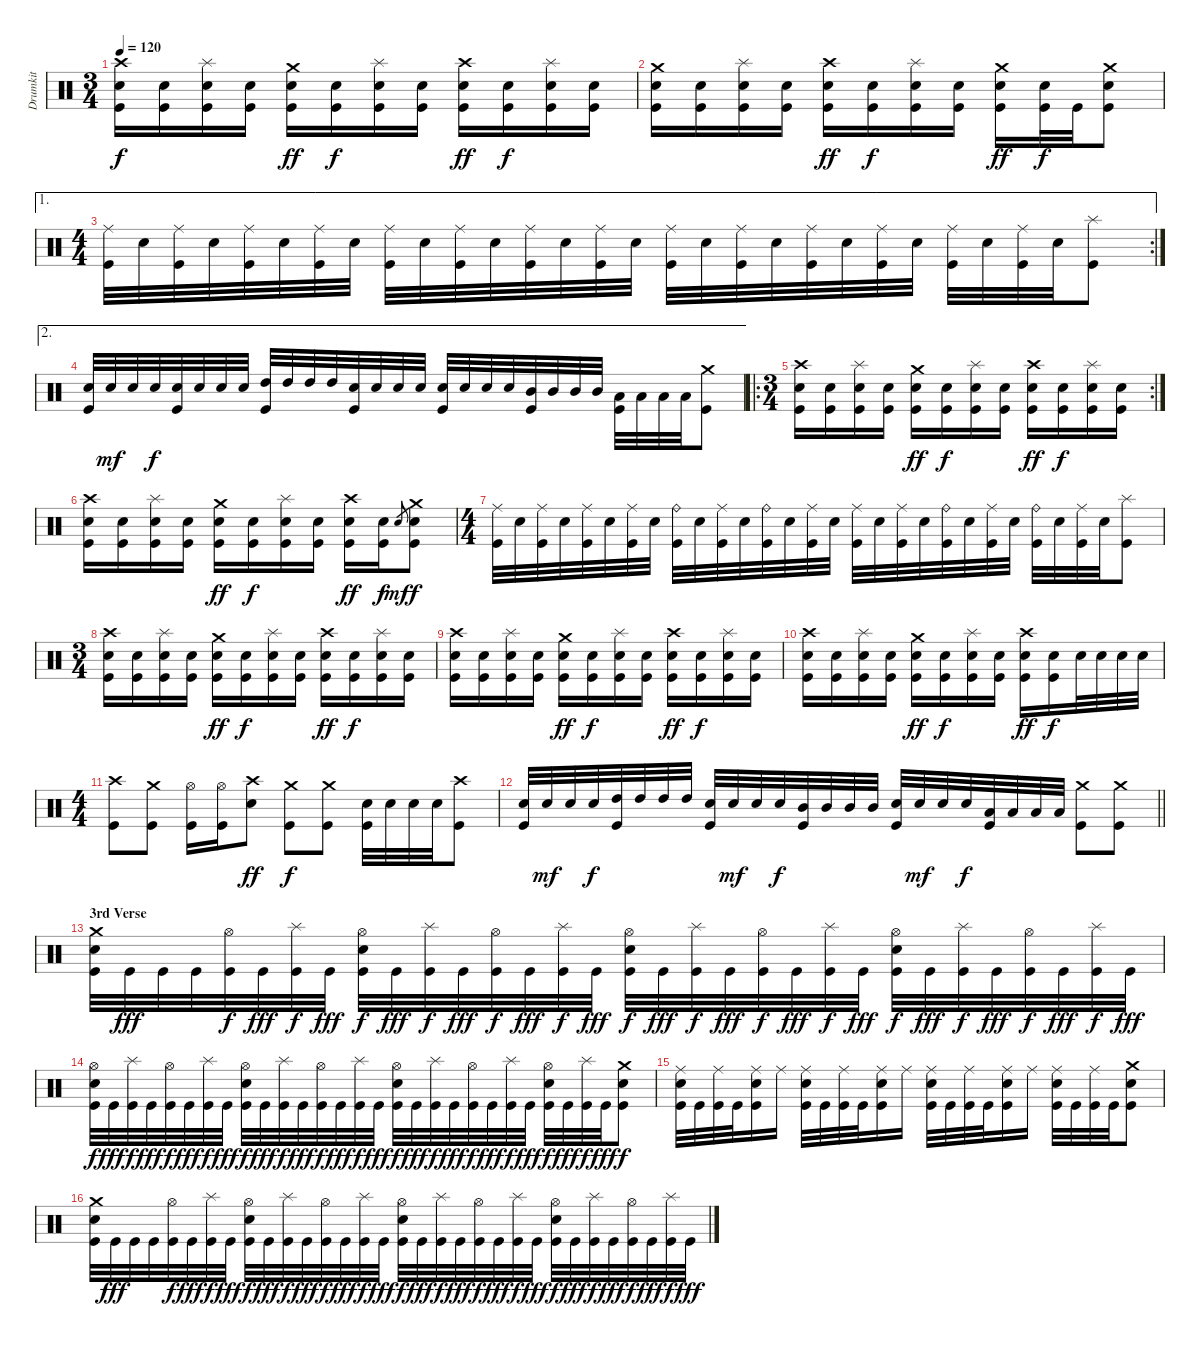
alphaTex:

\track ("Drumkit" "Drumkit") {instrument percussion}
\staff {score}
\articulation defaults
\ts (3 4)
\tempo 120
\clef neutral
\ks c
("Crash high (hit)" "Snare (hit) 2" "Kick (hit)").16{dy f} ("Snare (hit) 2" "Kick (hit)").16 ("Splash (hit)" "Snare (hit) 2" "Kick (hit)").16 ("Snare (hit) 2" "Kick (hit)").16 ("Crash medium (hit)" "Snare (hit) 2" "Kick (hit)").16{dy ff} ("Snare (hit) 2" "Kick (hit)").16{dy f} ("Splash (hit)" "Snare (hit) 2" "Kick (hit)").16 ("Snare (hit) 2" "Kick (hit)").16 ("Crash high (hit)" "Snare (hit) 2" "Kick (hit)").16{dy ff} ("Snare (hit) 2" "Kick (hit)").16{dy f} ("Splash (hit)" "Snare (hit) 2" "Kick (hit)").16 ("Snare (hit) 2" "Kick (hit)").16 |
("Crash medium (hit)" "Snare (hit) 2" "Kick (hit)").16 ("Snare (hit) 2" "Kick (hit)").16 ("Splash (hit)" "Snare (hit) 2" "Kick (hit)").16 ("Snare (hit) 2" "Kick (hit)").16 ("Crash high (hit)" "Snare (hit) 2" "Kick (hit)").16{dy ff} ("Snare (hit) 2" "Kick (hit)").16{dy f} ("Splash (hit)" "Snare (hit) 2" "Kick (hit)").16 ("Snare (hit) 2" "Kick (hit)").16 ("Crash medium (hit)" "Snare (hit) 2" "Kick (hit)").16{dy ff} ("Snare (hit) 2" "Kick (hit)").32{dy f} "Kick (hit)".32 ("Crash medium (hit)" "Snare (hit) 2" "Kick (hit)").8 |
\ae 1
\rc 2
\ts (4 4)
("Ride (middle)" "Kick (hit)").32 "Snare (hit) 2".32 ("Ride (middle)" "Kick (hit)").32 "Snare (hit) 2".32 ("Ride (middle)" "Kick (hit)").32 "Snare (hit) 2".32 ("Ride (middle)" "Kick (hit)").32 "Snare (hit) 2".32 ("Ride (middle)" "Kick (hit)").32 "Snare (hit) 2".32 ("Ride (middle)" "Kick (hit)").32 "Snare (hit) 2".32 ("Ride (middle)" "Kick (hit)").32 "Snare (hit) 2".32 ("Ride (middle)" "Kick (hit)").32 "Snare (hit) 2".32 ("Ride (middle)" "Kick (hit)").32 "Snare (hit) 2".32 ("Ride (middle)" "Kick (hit)").32 "Snare (hit) 2".32 ("Ride (middle)" "Kick (hit)").32 "Snare (hit) 2".32 ("Ride (middle)" "Kick (hit)").32 "Snare (hit) 2".32 ("Ride (middle)" "Kick (hit)").32 "Snare (hit) 2".32 ("Ride (middle)" "Kick (hit)").32 "Snare (hit) 2".32 ("Splash (hit)" "Kick (hit)").8 |
\ae 2
("Snare (hit) 2" "Kick (hit)").32 "Snare (hit) 2".32{dy mf} "Snare (hit) 2".32 "Snare (hit) 2".32{dy f} ("Snare (hit) 2" "Kick (hit)").32 "Snare (hit) 2".32 "Snare (hit) 2".32 "Snare (hit) 2".32 ("High Tom (hit)" "Kick (hit)").32 "High Tom (hit)".32 "High Tom (hit)".32 "High Tom (hit)".32 ("Snare (hit) 2" "Kick (hit)").32 "Snare (hit) 2".32 "Snare (hit) 2".32 "Snare (hit) 2".32 ("Snare (hit) 2" "Kick (hit)").32 "Snare (hit) 2".32 "Snare (hit) 2".32 "Snare (hit) 2".32 ("Mid Tom (hit)" "Kick (hit)").32 "Mid Tom (hit)".32 "Mid Tom (hit)".32 "Mid Tom (hit)".32 ("Low Tom (hit)" "Kick (hit)").32 "Low Tom (hit)".32 "Low Tom (hit)".32 "Low Tom (hit)".32 ("Crash medium (hit)" "Kick (hit)").8 |
\ro
\rc 2
\ts (3 4)
("Crash high (hit)" "Snare (hit) 2" "Kick (hit)").16 ("Snare (hit) 2" "Kick (hit)").16 ("Splash (hit)" "Snare (hit) 2" "Kick (hit)").16 ("Snare (hit) 2" "Kick (hit)").16 ("Crash medium (hit)" "Snare (hit) 2" "Kick (hit)").16{dy ff} ("Snare (hit) 2" "Kick (hit)").16{dy f} ("Splash (hit)" "Snare (hit) 2" "Kick (hit)").16 ("Snare (hit) 2" "Kick (hit)").16 ("Crash high (hit)" "Snare (hit) 2" "Kick (hit)").16{dy ff} ("Snare (hit) 2" "Kick (hit)").16{dy f} ("Splash (hit)" "Snare (hit) 2" "Kick (hit)").16 ("Snare (hit) 2" "Kick (hit)").16 |
("Crash high (hit)" "Snare (hit) 2" "Kick (hit)").16 ("Snare (hit) 2" "Kick (hit)").16 ("Splash (hit)" "Snare (hit) 2" "Kick (hit)").16 ("Snare (hit) 2" "Kick (hit)").16 ("Crash medium (hit)" "Snare (hit) 2" "Kick (hit)").16{dy ff} ("Snare (hit) 2" "Kick (hit)").16{dy f} ("Splash (hit)" "Snare (hit) 2" "Kick (hit)").16 ("Snare (hit) 2" "Kick (hit)").16 ("Crash high (hit)" "Snare (hit) 2" "Kick (hit)").16{dy ff} ("Snare (hit) 2" "Kick (hit)").16{dy f} "Snare (hit)".8{gr dy mf} ("Crash medium (hit)" "Snare (hit) 2" "Kick (hit)").8{dy f} |
\ts (4 4)
("Ride (middle)" "Kick (hit)").32 "Snare (hit) 2".32 ("Ride (middle)" "Kick (hit)").32 "Snare (hit) 2".32 ("Ride (middle)" "Kick (hit)").32 "Snare (hit) 2".32 ("Ride (middle)" "Kick (hit)").32 "Snare (hit) 2".32 ("Ride (bell)" "Kick (hit)").32 "Snare (hit) 2".32 ("Ride (middle)" "Kick (hit)").32 "Snare (hit) 2".32 ("Ride (bell)" "Kick (hit)").32 "Snare (hit) 2".32 ("Ride (middle)" "Kick (hit)").32 "Snare (hit) 2".32 ("Ride (middle)" "Kick (hit)").32 "Snare (hit) 2".32 ("Ride (middle)" "Kick (hit)").32 "Snare (hit) 2".32 ("Ride (bell)" "Kick (hit)").32 "Snare (hit) 2".32 ("Ride (middle)" "Kick (hit)").32 "Snare (hit) 2".32 ("Ride (bell)" "Kick (hit)").32 "Snare (hit) 2".32 ("Ride (middle)" "Kick (hit)").32 "Snare (hit) 2".32 ("Splash (hit)" "Kick (hit)").8 |
\ts (3 4)
("Crash high (hit)" "Snare (hit) 2" "Kick (hit)").16 ("Snare (hit) 2" "Kick (hit)").16 ("Splash (hit)" "Snare (hit) 2" "Kick (hit)").16 ("Snare (hit) 2" "Kick (hit)").16 ("Crash medium (hit)" "Snare (hit) 2" "Kick (hit)").16{dy ff} ("Snare (hit) 2" "Kick (hit)").16{dy f} ("Splash (hit)" "Snare (hit) 2" "Kick (hit)").16 ("Snare (hit) 2" "Kick (hit)").16 ("Crash high (hit)" "Snare (hit) 2" "Kick (hit)").16{dy ff} ("Snare (hit) 2" "Kick (hit)").16{dy f} ("Splash (hit)" "Snare (hit) 2" "Kick (hit)").16 ("Snare (hit) 2" "Kick (hit)").16 |
("Crash high (hit)" "Snare (hit) 2" "Kick (hit)").16 ("Snare (hit) 2" "Kick (hit)").16 ("Splash (hit)" "Snare (hit) 2" "Kick (hit)").16 ("Snare (hit) 2" "Kick (hit)").16 ("Crash medium (hit)" "Snare (hit) 2" "Kick (hit)").16{dy ff} ("Snare (hit) 2" "Kick (hit)").16{dy f} ("Splash (hit)" "Snare (hit) 2" "Kick (hit)").16 ("Snare (hit) 2" "Kick (hit)").16 ("Crash high (hit)" "Snare (hit) 2" "Kick (hit)").16{dy ff} ("Snare (hit) 2" "Kick (hit)").16{dy f} ("Splash (hit)" "Snare (hit) 2" "Kick (hit)").16 ("Snare (hit) 2" "Kick (hit)").16 |
("Crash high (hit)" "Snare (hit) 2" "Kick (hit)").16 ("Snare (hit) 2" "Kick (hit)").16 ("Splash (hit)" "Snare (hit) 2" "Kick (hit)").16 ("Snare (hit) 2" "Kick (hit)").16 ("Crash medium (hit)" "Snare (hit) 2" "Kick (hit)").16{dy ff} ("Snare (hit) 2" "Kick (hit)").16{dy f} ("Splash (hit)" "Snare (hit) 2" "Kick (hit)").16 ("Snare (hit) 2" "Kick (hit)").16 ("Crash high (hit)" "Snare (hit) 2" "Kick (hit)").16{dy ff} ("Snare (hit) 2" "Kick (hit)").16{dy f} "Snare (hit) 2".32 "Snare (hit) 2".32 "Snare (hit) 2".32 "Snare (hit) 2".32 |
\ts (4 4)
("Crash high (hit)" "Kick (hit)").8 ("Crash medium (hit)" "Kick (hit)").8 ("Hi-Hat (open)" "Kick (hit)").16 ("Hi-Hat (open)" "Kick (hit)").16 ("Crash high (hit)" "Snare (hit) 2").8{dy ff} ("Crash medium (hit)" "Kick (hit)").8{dy f} ("Crash medium (hit)" "Kick (hit)").8 ("Snare (hit) 2" "Kick (hit)").32 "Snare (hit) 2".32 "Snare (hit) 2".32 "Snare (hit) 2".32 ("Crash high (hit)" "Kick (hit)").8 |
\barLineRight lightlight
("Snare (hit) 2" "Kick (hit)").32 "Snare (hit) 2".32{dy mf} "Snare (hit) 2".32 "Snare (hit) 2".32{dy f} ("High Tom (hit)" "Kick (hit)").32 "High Tom (hit)".32 "High Tom (hit)".32 "High Tom (hit)".32 ("Snare (hit) 2" "Kick (hit)").32 "Snare (hit) 2".32{dy mf} "Snare (hit) 2".32 "Snare (hit) 2".32{dy f} ("Mid Tom (hit)" "Kick (hit)").32 "Mid Tom (hit)".32 "Mid Tom (hit)".32 "Mid Tom (hit)".32 ("Snare (hit) 2" "Kick (hit)").32 "Snare (hit) 2".32{dy mf} "Snare (hit) 2".32 "Snare (hit) 2".32{dy f} ("Low Tom (hit)" "Kick (hit)").32 "Low Tom (hit)".32 "Low Tom (hit)".32 "Low Tom (hit)".32 ("Crash medium (hit)" "Kick (hit)").8 ("Crash medium (hit)" "Kick (hit)").8 |
\section ("" "3rd Verse")
("Crash medium (hit)" "Snare (hit) 2" "Kick (hit)").32 "Kick (hit)".32{dy fff} "Kick (hit)".32 "Kick (hit)".32 ("Hi-Hat (open)" "Kick (hit)").32{dy f} "Kick (hit)".32{dy fff} ("Splash (hit)" "Kick (hit)").32{dy f} "Kick (hit)".32{dy fff} ("Hi-Hat (open)" "Snare (hit) 2" "Kick (hit)").32{dy f} "Kick (hit)".32{dy fff} ("Splash (hit)" "Kick (hit)").32{dy f} "Kick (hit)".32{dy fff} ("Hi-Hat (open)" "Kick (hit)").32{dy f} "Kick (hit)".32{dy fff} ("Splash (hit)" "Kick (hit)").32{dy f} "Kick (hit)".32{dy fff} ("Hi-Hat (open)" "Snare (hit) 2" "Kick (hit)").32{dy f} "Kick (hit)".32{dy fff} ("Splash (hit)" "Kick (hit)").32{dy f} "Kick (hit)".32{dy fff} ("Hi-Hat (open)" "Kick (hit)").32{dy f} "Kick (hit)".32{dy fff} ("Splash (hit)" "Kick (hit)").32{dy f} "Kick (hit)".32{dy fff} ("Hi-Hat (open)" "Snare (hit) 2" "Kick (hit)").32{dy f} "Kick (hit)".32{dy fff} ("Splash (hit)" "Kick (hit)").32{dy f} "Kick (hit)".32{dy fff} ("Hi-Hat (open)" "Kick (hit)").32{dy f} "Kick (hit)".32{dy fff} ("Splash (hit)" "Kick (hit)").32{dy f} "Kick (hit)".32{dy fff} |
("Hi-Hat (open)" "Snare (hit) 2" "Kick (hit)").32{dy f} "Kick (hit)".32{dy fff} ("Splash (hit)" "Kick (hit)").32{dy f} "Kick (hit)".32{dy fff} ("Hi-Hat (open)" "Kick (hit)").32{dy f} "Kick (hit)".32{dy fff} ("Splash (hit)" "Kick (hit)").32{dy f} "Kick (hit)".32{dy fff} ("Hi-Hat (open)" "Snare (hit) 2" "Kick (hit)").32{dy f} "Kick (hit)".32{dy fff} ("Splash (hit)" "Kick (hit)").32{dy f} "Kick (hit)".32{dy fff} ("Hi-Hat (open)" "Kick (hit)").32{dy f} "Kick (hit)".32{dy fff} ("Splash (hit)" "Kick (hit)").32{dy f} "Kick (hit)".32{dy fff} ("Hi-Hat (open)" "Snare (hit) 2" "Kick (hit)").32{dy f} "Kick (hit)".32{dy fff} ("Splash (hit)" "Kick (hit)").32{dy f} "Kick (hit)".32{dy fff} ("Hi-Hat (open)" "Kick (hit)").32{dy f} "Kick (hit)".32{dy fff} ("Splash (hit)" "Kick (hit)").32{dy f} "Kick (hit)".32{dy fff} ("Hi-Hat (open)" "Snare (hit) 2" "Kick (hit)").32{dy f} "Kick (hit)".32{dy fff} ("Splash (hit)" "Kick (hit)").32{dy f} "Kick (hit)".32{dy fff} ("Crash medium (hit)" "Snare (hit) 2" "Kick (hit)").8{dy f} |
("Ride (middle)" "Snare (hit) 2" "Kick (hit)").32 "Kick (hit)".32 ("Ride (middle)" "Kick (hit)").32 "Kick (hit)".32 ("Ride (middle)" "Snare (hit) 2" "Kick (hit)").16 "Ride (middle)".16 ("Ride (middle)" "Snare (hit) 2" "Kick (hit)").32 "Kick (hit)".32 ("Ride (middle)" "Kick (hit)").32 "Kick (hit)".32 ("Ride (middle)" "Snare (hit) 2" "Kick (hit)").16 "Ride (middle)".16 ("Ride (middle)" "Snare (hit) 2" "Kick (hit)").32 "Kick (hit)".32 ("Ride (middle)" "Kick (hit)").32 "Kick (hit)".32 ("Ride (middle)" "Snare (hit) 2" "Kick (hit)").16 "Ride (middle)".16 ("Ride (middle)" "Snare (hit) 2" "Kick (hit)").32 "Kick (hit)".32 ("Ride (middle)" "Kick (hit)").32 "Kick (hit)".32 ("Crash medium (hit)" "Snare (hit) 2" "Kick (hit)").8 |
("Crash medium (hit)" "Snare (hit) 2" "Kick (hit)").32 "Kick (hit)".32{dy fff} "Kick (hit)".32 "Kick (hit)".32 ("Hi-Hat (open)" "Kick (hit)").32{dy f} "Kick (hit)".32{dy fff} ("Splash (hit)" "Kick (hit)").32{dy f} "Kick (hit)".32{dy fff} ("Hi-Hat (open)" "Snare (hit) 2" "Kick (hit)").32{dy f} "Kick (hit)".32{dy fff} ("Splash (hit)" "Kick (hit)").32{dy f} "Kick (hit)".32{dy fff} ("Hi-Hat (open)" "Kick (hit)").32{dy f} "Kick (hit)".32{dy fff} ("Splash (hit)" "Kick (hit)").32{dy f} "Kick (hit)".32{dy fff} ("Hi-Hat (open)" "Snare (hit) 2" "Kick (hit)").32{dy f} "Kick (hit)".32{dy fff} ("Splash (hit)" "Kick (hit)").32{dy f} "Kick (hit)".32{dy fff} ("Hi-Hat (open)" "Kick (hit)").32{dy f} "Kick (hit)".32{dy fff} ("Splash (hit)" "Kick (hit)").32{dy f} "Kick (hit)".32{dy fff} ("Hi-Hat (open)" "Snare (hit) 2" "Kick (hit)").32{dy f} "Kick (hit)".32{dy fff} ("Splash (hit)" "Kick (hit)").32{dy f} "Kick (hit)".32{dy fff} ("Hi-Hat (open)" "Kick (hit)").32{dy f} "Kick (hit)".32{dy fff} ("Splash (hit)" "Kick (hit)").32{dy f} "Kick (hit)".32{dy fff}
